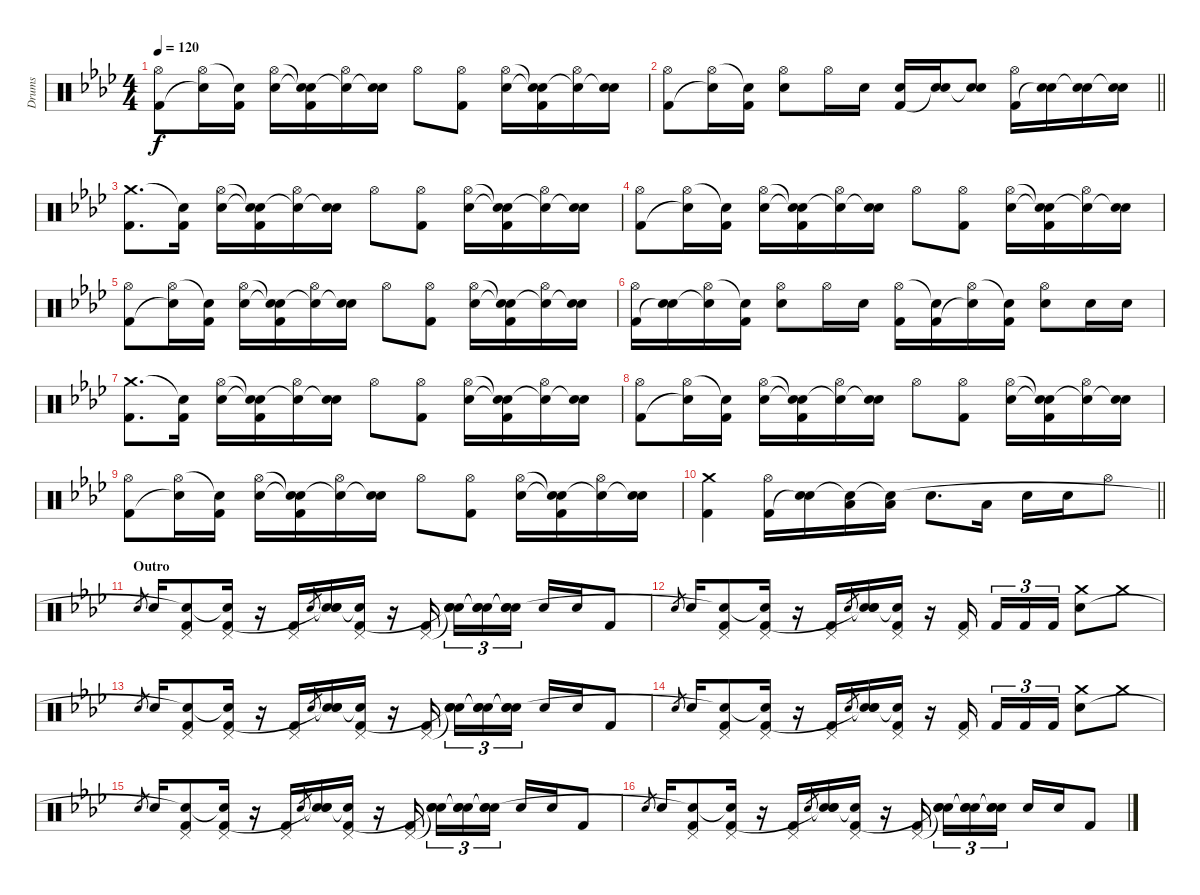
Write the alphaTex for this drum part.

\track ("Drums" "Drums") {instrument percussion}
\staff {score}
\articulation defaults
\ts (4 4)
\tempo 120
\clef neutral
\ks fminor
("Hi-Hat (open)" "Kick (hit) 2").8{dy f} ("Hi-Hat (open)" "Snare (hit)"{t}).16 ("Snare (hit)"{t} "Kick (hit) 2").16 ("Hi-Hat (open)" "Electric Snare (hit)").16 ("Snare (hit)"{t} "Snare (hit)"{t} "Kick (hit) 2").16 ("Hi-Hat (open)" "Snare (hit)"{t}).16 ("Electric Snare (hit)" "Snare (hit)"{t}).16 "Hi-Hat (open)".8 ("Hi-Hat (open)" "Kick (hit) 2").8 ("Hi-Hat (open)" "Electric Snare (hit)").16 ("Snare (hit)"{t} "Snare (hit)"{t} "Kick (hit) 2").16 ("Hi-Hat (open)" "Snare (hit)"{t}).16 ("Electric Snare (hit)" "Snare (hit)"{t}).16 |
\barLineRight lightlight
("Hi-Hat (open)" "Kick (hit) 2").8 ("Hi-Hat (open)" "Snare (hit)"{t}).16 ("Snare (hit)"{t} "Kick (hit) 2").16 ("Hi-Hat (open)" "Electric Snare (hit)").8 "Hi-Hat (open)".16 "Electric Snare (hit)".16 ("Electric Snare (hit)" "Kick (hit) 2").16 ("Electric Snare (hit)" "Snare (hit)"{t}).16 ("Electric Snare (hit)" "Snare (hit)"{t}).8 ("Hi-Hat (open)" "Kick (hit) 2").16 ("Electric Snare (hit)" "Snare (hit)"{t}).16 ("Electric Snare (hit)" "Snare (hit)"{t}).16 ("Electric Snare (hit)" "Snare (hit)"{t}).16 |
("Crash medium (hit)" "Kick (hit) 2").8{d} ("Snare (hit)"{t} "Kick (hit) 2").16 ("Hi-Hat (open)" "Electric Snare (hit)").16 ("Snare (hit)"{t} "Snare (hit)"{t} "Kick (hit) 2").16 ("Hi-Hat (open)" "Snare (hit)"{t}).16 ("Electric Snare (hit)" "Snare (hit)"{t}).16 "Hi-Hat (open)".8 ("Hi-Hat (open)" "Kick (hit) 2").8 ("Hi-Hat (open)" "Electric Snare (hit)").16 ("Snare (hit)"{t} "Snare (hit)"{t} "Kick (hit) 2").16 ("Hi-Hat (open)" "Snare (hit)"{t}).16 ("Electric Snare (hit)" "Snare (hit)"{t}).16 |
("Hi-Hat (open)" "Kick (hit) 2").8 ("Hi-Hat (open)" "Snare (hit)"{t}).16 ("Snare (hit)"{t} "Kick (hit) 2").16 ("Hi-Hat (open)" "Electric Snare (hit)").16 ("Snare (hit)"{t} "Snare (hit)"{t} "Kick (hit) 2").16 ("Hi-Hat (open)" "Snare (hit)"{t}).16 ("Electric Snare (hit)" "Snare (hit)"{t}).16 "Hi-Hat (open)".8 ("Hi-Hat (open)" "Kick (hit) 2").8 ("Hi-Hat (open)" "Electric Snare (hit)").16 ("Snare (hit)"{t} "Snare (hit)"{t} "Kick (hit) 2").16 ("Hi-Hat (open)" "Snare (hit)"{t}).16 ("Electric Snare (hit)" "Snare (hit)"{t}).16 |
("Hi-Hat (open)" "Kick (hit) 2").8 ("Hi-Hat (open)" "Snare (hit)"{t}).16 ("Snare (hit)"{t} "Kick (hit) 2").16 ("Hi-Hat (open)" "Electric Snare (hit)").16 ("Snare (hit)"{t} "Snare (hit)"{t} "Kick (hit) 2").16 ("Hi-Hat (open)" "Snare (hit)"{t}).16 ("Electric Snare (hit)" "Snare (hit)"{t}).16 "Hi-Hat (open)".8 ("Hi-Hat (open)" "Kick (hit) 2").8 ("Hi-Hat (open)" "Electric Snare (hit)").16 ("Snare (hit)"{t} "Snare (hit)"{t} "Kick (hit) 2").16 ("Hi-Hat (open)" "Snare (hit)"{t}).16 ("Electric Snare (hit)" "Snare (hit)"{t}).16 |
("Hi-Hat (open)" "Kick (hit) 2").16 ("Electric Snare (hit)" "Snare (hit)"{t}).16 ("Hi-Hat (open)" "Snare (hit)"{t}).16 ("Snare (hit)"{t} "Kick (hit) 2").16 ("Hi-Hat (open)" "Electric Snare (hit)").8 "Hi-Hat (open)".16 "Electric Snare (hit)".16 ("Hi-Hat (open)" "Kick (hit) 2").16 ("Snare (hit)"{t} "Kick (hit) 2").16 ("Hi-Hat (open)" "Snare (hit)"{t}).16 ("Snare (hit)"{t} "Kick (hit) 2").16 ("Hi-Hat (open)" "Electric Snare (hit)").8 "Electric Snare (hit)".16 "Electric Snare (hit)".16 |
("Crash medium (hit)" "Kick (hit) 2").8{d} ("Snare (hit)"{t} "Kick (hit) 2").16 ("Hi-Hat (open)" "Electric Snare (hit)").16 ("Snare (hit)"{t} "Snare (hit)"{t} "Kick (hit) 2").16 ("Hi-Hat (open)" "Snare (hit)"{t}).16 ("Electric Snare (hit)" "Snare (hit)"{t}).16 "Hi-Hat (open)".8 ("Hi-Hat (open)" "Kick (hit) 2").8 ("Hi-Hat (open)" "Electric Snare (hit)").16 ("Snare (hit)"{t} "Snare (hit)"{t} "Kick (hit) 2").16 ("Hi-Hat (open)" "Snare (hit)"{t}).16 ("Electric Snare (hit)" "Snare (hit)"{t}).16 |
("Hi-Hat (open)" "Kick (hit) 2").8 ("Hi-Hat (open)" "Snare (hit)"{t}).16 ("Snare (hit)"{t} "Kick (hit) 2").16 ("Hi-Hat (open)" "Electric Snare (hit)").16 ("Snare (hit)"{t} "Snare (hit)"{t} "Kick (hit) 2").16 ("Hi-Hat (open)" "Snare (hit)"{t}).16 ("Electric Snare (hit)" "Snare (hit)"{t}).16 "Hi-Hat (open)".8 ("Hi-Hat (open)" "Kick (hit) 2").8 ("Hi-Hat (open)" "Electric Snare (hit)").16 ("Snare (hit)"{t} "Snare (hit)"{t} "Kick (hit) 2").16 ("Hi-Hat (open)" "Snare (hit)"{t}).16 ("Electric Snare (hit)" "Snare (hit)"{t}).16 |
("Hi-Hat (open)" "Kick (hit) 2").8 ("Hi-Hat (open)" "Snare (hit)"{t}).16 ("Snare (hit)"{t} "Kick (hit) 2").16 ("Hi-Hat (open)" "Electric Snare (hit)").16 ("Snare (hit)"{t} "Snare (hit)"{t} "Kick (hit) 2").16 ("Hi-Hat (open)" "Snare (hit)"{t}).16 ("Electric Snare (hit)" "Snare (hit)"{t}).16 "Hi-Hat (open)".8 ("Hi-Hat (open)" "Kick (hit) 2").8 ("Hi-Hat (open)" "Electric Snare (hit)").16 ("Snare (hit)"{t} "Snare (hit)"{t} "Kick (hit) 2").16 ("Hi-Hat (open)" "Snare (hit)"{t}).16 ("Electric Snare (hit)" "Snare (hit)"{t}).16 |
\barLineRight lightlight
("Crash medium (hit)" "Kick (hit) 2").4 ("Hi-Hat (open)" "Kick (hit) 2").16 ("Electric Snare (hit)" "Snare (hit)"{t}).16 ("Low Tom (hit)" "Snare (hit)"{t}).16 ("Low Floor Tom (hit)" "Snare (hit)"{t}).16 "Electric Snare (hit)".8{d} "Low Tom (hit)".16 "Electric Snare (hit)".16 "Electric Snare (hit)".16 "Hi-Hat (open)".8 |
\section ("" "Outro")
"Electric Snare (hit)".8{gr} "Electric Snare (hit)".16 ("Pedal Hi-Hat (hit)" "Snare (hit)"{t} "Kick (hit) 2").8 ("Pedal Hi-Hat (hit)" "Snare (hit)"{t} "Kick (hit) 2").16 r.16 ("Pedal Hi-Hat (hit)" "Kick (hit) 2").16 "Electric Snare (hit)".8{gr} ("Snare (hit)"{t} "Electric Snare (hit)" "Snare (hit)"{t}).16 ("Pedal Hi-Hat (hit)" "Snare (hit)"{t} "Kick (hit) 2").16 r.16 ("Pedal Hi-Hat (hit)" "Kick (hit) 2").16{beam splitsecondary} ("Snare (hit)"{t} "Electric Snare (hit)" "Snare (hit)"{t}).16{tu (3 2)} ("Snare (hit)"{t} "Electric Snare (hit)" "Snare (hit)"{t}).16{tu (3 2)} ("Snare (hit)"{t} "Electric Snare (hit)" "Snare (hit)"{t}).16{tu (3 2)} "Electric Snare (hit)".16 "Electric Snare (hit)".16 "Kick (hit) 2".8 |
"Electric Snare (hit)".8{gr} "Electric Snare (hit)".16 ("Pedal Hi-Hat (hit)" "Snare (hit)"{t} "Kick (hit) 2").8 ("Pedal Hi-Hat (hit)" "Snare (hit)"{t} "Kick (hit) 2").16 r.16 ("Pedal Hi-Hat (hit)" "Kick (hit) 2").16 "Electric Snare (hit)".8{gr} ("Snare (hit)"{t} "Electric Snare (hit)" "Snare (hit)"{t}).16 ("Pedal Hi-Hat (hit)" "Snare (hit)"{t} "Kick (hit) 2").16 r.16 ("Pedal Hi-Hat (hit)" "Kick (hit) 2").16{beam splitsecondary} "Kick (hit) 2".16{tu (3 2)} "Kick (hit) 2".16{tu (3 2)} "Kick (hit) 2".16{tu (3 2)} ("Crash medium (hit)" "Electric Snare (hit)").8 "Crash medium (hit)".8 |
"Electric Snare (hit)".8{gr} "Electric Snare (hit)".16 ("Pedal Hi-Hat (hit)" "Snare (hit)"{t} "Kick (hit) 2").8 ("Pedal Hi-Hat (hit)" "Snare (hit)"{t} "Kick (hit) 2").16 r.16 ("Pedal Hi-Hat (hit)" "Kick (hit) 2").16 "Electric Snare (hit)".8{gr} ("Snare (hit)"{t} "Electric Snare (hit)" "Snare (hit)"{t}).16 ("Pedal Hi-Hat (hit)" "Snare (hit)"{t} "Kick (hit) 2").16 r.16 ("Pedal Hi-Hat (hit)" "Kick (hit) 2").16{beam splitsecondary} ("Snare (hit)"{t} "Electric Snare (hit)" "Snare (hit)"{t}).16{tu (3 2)} ("Snare (hit)"{t} "Electric Snare (hit)" "Snare (hit)"{t}).16{tu (3 2)} ("Snare (hit)"{t} "Electric Snare (hit)" "Snare (hit)"{t}).16{tu (3 2)} "Electric Snare (hit)".16 "Electric Snare (hit)".16 "Kick (hit) 2".8 |
"Electric Snare (hit)".8{gr} "Electric Snare (hit)".16 ("Pedal Hi-Hat (hit)" "Snare (hit)"{t} "Kick (hit) 2").8 ("Pedal Hi-Hat (hit)" "Snare (hit)"{t} "Kick (hit) 2").16 r.16 ("Pedal Hi-Hat (hit)" "Kick (hit) 2").16 "Electric Snare (hit)".8{gr} ("Snare (hit)"{t} "Electric Snare (hit)" "Snare (hit)"{t}).16 ("Pedal Hi-Hat (hit)" "Snare (hit)"{t} "Kick (hit) 2").16 r.16 ("Pedal Hi-Hat (hit)" "Kick (hit) 2").16{beam splitsecondary} "Kick (hit) 2".16{tu (3 2)} "Kick (hit) 2".16{tu (3 2)} "Kick (hit) 2".16{tu (3 2)} ("Crash medium (hit)" "Electric Snare (hit)").8 "Crash medium (hit)".8 |
"Electric Snare (hit)".8{gr} "Electric Snare (hit)".16 ("Pedal Hi-Hat (hit)" "Snare (hit)"{t} "Kick (hit) 2").8 ("Pedal Hi-Hat (hit)" "Snare (hit)"{t} "Kick (hit) 2").16 r.16 ("Pedal Hi-Hat (hit)" "Kick (hit) 2").16 "Electric Snare (hit)".8{gr} ("Snare (hit)"{t} "Electric Snare (hit)" "Snare (hit)"{t}).16 ("Pedal Hi-Hat (hit)" "Snare (hit)"{t} "Kick (hit) 2").16 r.16 ("Pedal Hi-Hat (hit)" "Kick (hit) 2").16{beam splitsecondary} ("Snare (hit)"{t} "Electric Snare (hit)" "Snare (hit)"{t}).16{tu (3 2)} ("Snare (hit)"{t} "Electric Snare (hit)" "Snare (hit)"{t}).16{tu (3 2)} ("Snare (hit)"{t} "Electric Snare (hit)" "Snare (hit)"{t}).16{tu (3 2)} "Electric Snare (hit)".16 "Electric Snare (hit)".16 "Kick (hit) 2".8 |
"Electric Snare (hit)".8{gr} "Electric Snare (hit)".16 ("Pedal Hi-Hat (hit)" "Snare (hit)"{t} "Kick (hit) 2").8 ("Pedal Hi-Hat (hit)" "Snare (hit)"{t} "Kick (hit) 2").16 r.16 ("Pedal Hi-Hat (hit)" "Kick (hit) 2").16 "Electric Snare (hit)".8{gr} ("Snare (hit)"{t} "Electric Snare (hit)" "Snare (hit)"{t}).16 ("Pedal Hi-Hat (hit)" "Snare (hit)"{t} "Kick (hit) 2").16 r.16 ("Pedal Hi-Hat (hit)" "Kick (hit) 2").16{beam splitsecondary} ("Snare (hit)"{t} "Electric Snare (hit)" "Snare (hit)"{t}).16{tu (3 2)} ("Snare (hit)"{t} "Electric Snare (hit)" "Snare (hit)"{t}).16{tu (3 2)} ("Snare (hit)"{t} "Electric Snare (hit)" "Snare (hit)"{t}).16{tu (3 2)} "Electric Snare (hit)".16 "Electric Snare (hit)".16 "Kick (hit) 2".8
